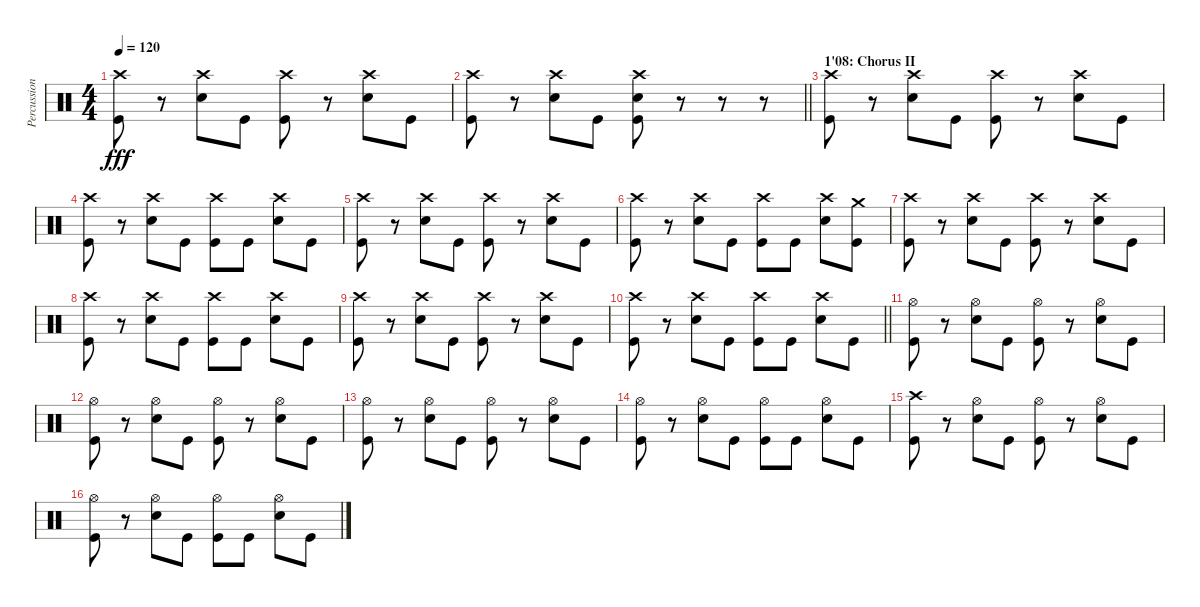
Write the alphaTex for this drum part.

\track ("Percussions" "Percussion") {instrument percussion}
\staff {score}
\articulation defaults
\ts (4 4)
\tempo 120
\clef neutral
\ks c
("Crash high (hit)" "Kick (hit)").8{dy fff} r.8 ("Crash high (hit)" "Snare (hit) 2").8 "Kick (hit)".8 ("Crash high (hit)" "Kick (hit)").8 r.8 ("Crash high (hit)" "Snare (hit) 2").8 "Kick (hit)".8 |
\barLineRight lightlight
("Crash high (hit)" "Kick (hit)").8 r.8 ("Crash high (hit)" "Snare (hit) 2").8 "Kick (hit)".8 ("Crash high (hit)" "Snare (hit) 2" "Kick (hit)").8 r.8 r.8 r.8 |
\section ("" "1'08: Chorus II")
("Crash high (hit)" "Kick (hit)").8 r.8 ("Crash high (hit)" "Snare (hit) 2").8 "Kick (hit)".8 ("Crash high (hit)" "Kick (hit)").8 r.8 ("Crash high (hit)" "Snare (hit) 2").8 "Kick (hit)".8 |
("Crash high (hit)" "Kick (hit)").8 r.8 ("Crash high (hit)" "Snare (hit) 2").8 "Kick (hit)".8 ("Crash high (hit)" "Kick (hit)").8 "Kick (hit)".8 ("Crash high (hit)" "Snare (hit) 2").8 "Kick (hit)".8 |
("Crash high (hit)" "Kick (hit)").8 r.8 ("Crash high (hit)" "Snare (hit) 2").8 "Kick (hit)".8 ("Crash high (hit)" "Kick (hit)").8 r.8 ("Crash high (hit)" "Snare (hit) 2").8 "Kick (hit)".8 |
("Crash high (hit)" "Kick (hit)").8 r.8 ("Crash high (hit)" "Snare (hit) 2").8 "Kick (hit)".8 ("Crash high (hit)" "Kick (hit)").8 "Kick (hit)".8 ("Crash high (hit)" "Snare (hit) 2").8 ("Crash medium (hit)" "Kick (hit)").8 |
("Crash high (hit)" "Kick (hit)").8 r.8 ("Crash high (hit)" "Snare (hit) 2").8 "Kick (hit)".8 ("Crash high (hit)" "Kick (hit)").8 r.8 ("Crash high (hit)" "Snare (hit) 2").8 "Kick (hit)".8 |
("Crash high (hit)" "Kick (hit)").8 r.8 ("Crash high (hit)" "Snare (hit) 2").8 "Kick (hit)".8 ("Crash high (hit)" "Kick (hit)").8 "Kick (hit)".8 ("Crash high (hit)" "Snare (hit) 2").8 "Kick (hit)".8 |
("Crash high (hit)" "Kick (hit)").8 r.8 ("Crash high (hit)" "Snare (hit) 2").8 "Kick (hit)".8 ("Crash high (hit)" "Kick (hit)").8 r.8 ("Crash high (hit)" "Snare (hit) 2").8 "Kick (hit)".8 |
\barLineRight lightlight
("Crash high (hit)" "Kick (hit)").8 r.8 ("Crash high (hit)" "Snare (hit) 2").8 "Kick (hit)".8 ("Crash high (hit)" "Kick (hit)").8 "Kick (hit)".8 ("Crash high (hit)" "Snare (hit) 2").8 "Kick (hit)".8 |
("Hi-Hat (open)" "Kick (hit)").8 r.8 ("Hi-Hat (open)" "Snare (hit) 2").8 "Kick (hit)".8 ("Hi-Hat (open)" "Kick (hit)").8 r.8 ("Hi-Hat (open)" "Snare (hit) 2").8 "Kick (hit)".8 |
("Hi-Hat (open)" "Kick (hit)").8 r.8 ("Hi-Hat (open)" "Snare (hit) 2").8 "Kick (hit)".8 ("Hi-Hat (open)" "Kick (hit)").8 r.8 ("Hi-Hat (open)" "Snare (hit) 2").8 "Kick (hit)".8 |
("Hi-Hat (open)" "Kick (hit)").8 r.8 ("Hi-Hat (open)" "Snare (hit) 2").8 "Kick (hit)".8 ("Hi-Hat (open)" "Kick (hit)").8 r.8 ("Hi-Hat (open)" "Snare (hit) 2").8 "Kick (hit)".8 |
("Hi-Hat (open)" "Kick (hit)").8 r.8 ("Hi-Hat (open)" "Snare (hit) 2").8 "Kick (hit)".8 ("Hi-Hat (open)" "Kick (hit)").8 "Kick (hit)".8 ("Hi-Hat (open)" "Snare (hit) 2").8 "Kick (hit)".8 |
("Crash high (hit)" "Kick (hit)").8 r.8 ("Hi-Hat (open)" "Snare (hit) 2").8 "Kick (hit)".8 ("Hi-Hat (open)" "Kick (hit)").8 r.8 ("Hi-Hat (open)" "Snare (hit) 2").8 "Kick (hit)".8 |
("Hi-Hat (open)" "Kick (hit)").8 r.8 ("Hi-Hat (open)" "Snare (hit) 2").8 "Kick (hit)".8 ("Hi-Hat (open)" "Kick (hit)").8 "Kick (hit)".8 ("Hi-Hat (open)" "Snare (hit) 2").8 "Kick (hit)".8
